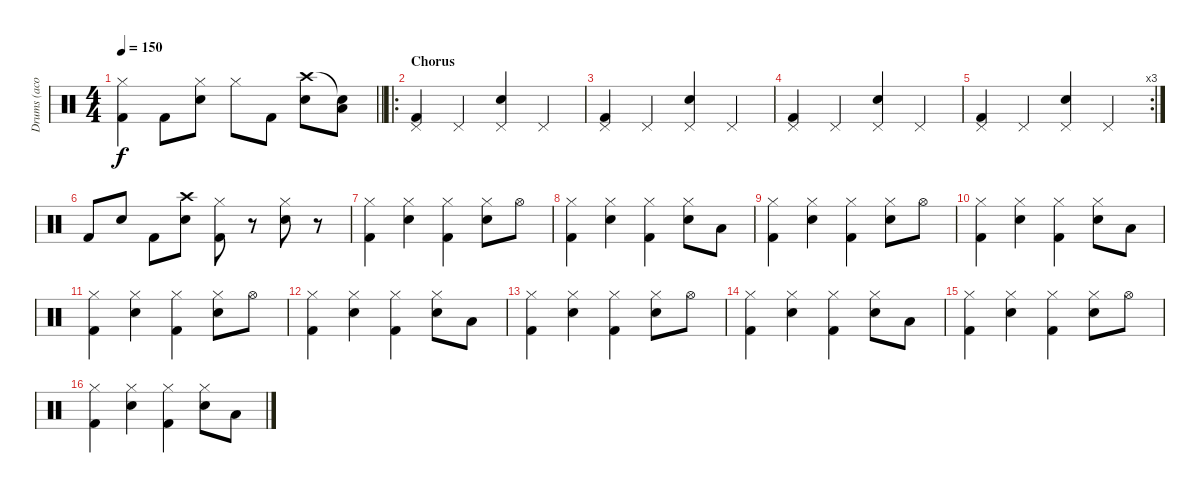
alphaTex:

\track ("Drums (acoustic drumset)" "Drums (aco") {instrument percussion}
\staff {score}
\articulation defaults
\ts (4 4)
\tempo 150
\clef neutral
\barLineRight lightlight
\ks c
("Hi-Hat (closed)" "Kick (hit) 2").4{dy f} "Kick (hit) 2".8 ("Hi-Hat (closed)" "Electric Snare (hit)").8 "Hi-Hat (closed)".8 "Kick (hit) 2".8 ("Crash high (hit)" "Electric Snare (hit)").8 ("Snare (hit)"{t} "Low Floor Tom (hit)").8 |
\ro
\section ("" "Chorus")
("Pedal Hi-Hat (hit)" "Kick (hit) 2").4 "Pedal Hi-Hat (hit)".4 ("Pedal Hi-Hat (hit)" "Electric Snare (hit)").4 "Pedal Hi-Hat (hit)".4 |
("Pedal Hi-Hat (hit)" "Kick (hit) 2").4 "Pedal Hi-Hat (hit)".4 ("Pedal Hi-Hat (hit)" "Electric Snare (hit)").4 "Pedal Hi-Hat (hit)".4 |
("Pedal Hi-Hat (hit)" "Kick (hit) 2").4 "Pedal Hi-Hat (hit)".4 ("Pedal Hi-Hat (hit)" "Electric Snare (hit)").4 "Pedal Hi-Hat (hit)".4 |
\rc 3
("Pedal Hi-Hat (hit)" "Kick (hit) 2").4 "Pedal Hi-Hat (hit)".4 ("Pedal Hi-Hat (hit)" "Electric Snare (hit)").4 "Pedal Hi-Hat (hit)".4 |
"Kick (hit) 2".8 "Electric Snare (hit)".8 "Kick (hit) 2".8 ("Crash high (hit)" "Electric Snare (hit)").8 ("Hi-Hat (closed)" "Kick (hit) 2").8 r.8 ("Hi-Hat (closed)" "Electric Snare (hit)").8 r.8 |
("Hi-Hat (closed)" "Kick (hit) 2").4 ("Hi-Hat (closed)" "Electric Snare (hit)").4 ("Hi-Hat (closed)" "Kick (hit) 2").4 ("Hi-Hat (closed)" "Electric Snare (hit)").8 "Hi-Hat (open)".8 |
("Hi-Hat (closed)" "Kick (hit) 2").4 ("Hi-Hat (closed)" "Electric Snare (hit)").4 ("Hi-Hat (closed)" "Kick (hit) 2").4 ("Hi-Hat (closed)" "Electric Snare (hit)").8 "Low Floor Tom (hit)".8 |
("Hi-Hat (closed)" "Kick (hit) 2").4 ("Hi-Hat (closed)" "Electric Snare (hit)").4 ("Hi-Hat (closed)" "Kick (hit) 2").4 ("Hi-Hat (closed)" "Electric Snare (hit)").8 "Hi-Hat (open)".8 |
("Hi-Hat (closed)" "Kick (hit) 2").4 ("Hi-Hat (closed)" "Electric Snare (hit)").4 ("Hi-Hat (closed)" "Kick (hit) 2").4 ("Hi-Hat (closed)" "Electric Snare (hit)").8 "Low Floor Tom (hit)".8 |
("Hi-Hat (closed)" "Kick (hit) 2").4 ("Hi-Hat (closed)" "Electric Snare (hit)").4 ("Hi-Hat (closed)" "Kick (hit) 2").4 ("Hi-Hat (closed)" "Electric Snare (hit)").8 "Hi-Hat (open)".8 |
("Hi-Hat (closed)" "Kick (hit) 2").4 ("Hi-Hat (closed)" "Electric Snare (hit)").4 ("Hi-Hat (closed)" "Kick (hit) 2").4 ("Hi-Hat (closed)" "Electric Snare (hit)").8 "Low Floor Tom (hit)".8 |
("Hi-Hat (closed)" "Kick (hit) 2").4 ("Hi-Hat (closed)" "Electric Snare (hit)").4 ("Hi-Hat (closed)" "Kick (hit) 2").4 ("Hi-Hat (closed)" "Electric Snare (hit)").8 "Hi-Hat (open)".8 |
("Hi-Hat (closed)" "Kick (hit) 2").4 ("Hi-Hat (closed)" "Electric Snare (hit)").4 ("Hi-Hat (closed)" "Kick (hit) 2").4 ("Hi-Hat (closed)" "Electric Snare (hit)").8 "Low Floor Tom (hit)".8 |
("Hi-Hat (closed)" "Kick (hit) 2").4 ("Hi-Hat (closed)" "Electric Snare (hit)").4 ("Hi-Hat (closed)" "Kick (hit) 2").4 ("Hi-Hat (closed)" "Electric Snare (hit)").8 "Hi-Hat (open)".8 |
("Hi-Hat (closed)" "Kick (hit) 2").4 ("Hi-Hat (closed)" "Electric Snare (hit)").4 ("Hi-Hat (closed)" "Kick (hit) 2").4 ("Hi-Hat (closed)" "Electric Snare (hit)").8 "Low Floor Tom (hit)".8
